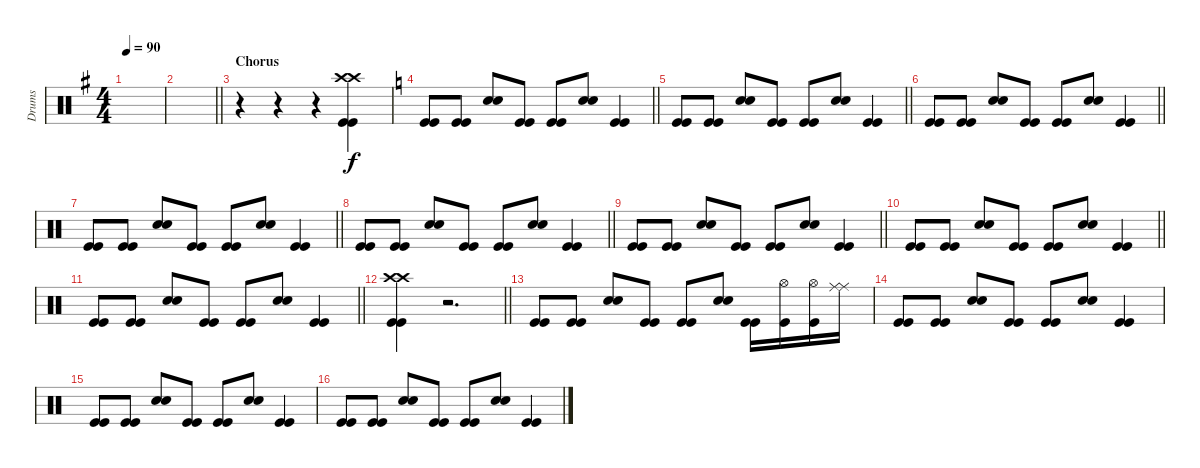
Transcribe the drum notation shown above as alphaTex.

\track ("Drums" "Drums") {instrument percussion}
\staff {score}
\articulation defaults
\ts (4 4)
\tempo 90
\clef neutral
\ks g
|
\barLineRight lightlight
|
\section ("" "Chorus")
r.4 r.4 r.4 ("Crash high (hit)" "Kick (hit)" "Kick (hit)" "Crash high (hit)").4 |
\barLineRight lightlight
\ks c
("Kick (hit)" "Kick (hit)").8 ("Kick (hit)" "Kick (hit)").8 ("Electric Snare (hit)" "Electric Snare (hit)").8 ("Kick (hit)" "Kick (hit)").8 ("Kick (hit)" "Kick (hit)").8 ("Electric Snare (hit)" "Electric Snare (hit)").8 ("Kick (hit)" "Kick (hit)").4 |
\barLineRight lightlight
("Kick (hit)" "Kick (hit)").8 ("Kick (hit)" "Kick (hit)").8 ("Electric Snare (hit)" "Electric Snare (hit)").8 ("Kick (hit)" "Kick (hit)").8 ("Kick (hit)" "Kick (hit)").8 ("Electric Snare (hit)" "Electric Snare (hit)").8 ("Kick (hit)" "Kick (hit)").4 |
\barLineRight lightlight
("Kick (hit)" "Kick (hit)").8 ("Kick (hit)" "Kick (hit)").8 ("Electric Snare (hit)" "Electric Snare (hit)").8 ("Kick (hit)" "Kick (hit)").8 ("Kick (hit)" "Kick (hit)").8 ("Electric Snare (hit)" "Electric Snare (hit)").8 ("Kick (hit)" "Kick (hit)").4 |
\barLineRight lightlight
("Kick (hit)" "Kick (hit)").8 ("Kick (hit)" "Kick (hit)").8 ("Electric Snare (hit)" "Electric Snare (hit)").8 ("Kick (hit)" "Kick (hit)").8 ("Kick (hit)" "Kick (hit)").8 ("Electric Snare (hit)" "Electric Snare (hit)").8 ("Kick (hit)" "Kick (hit)").4 |
\barLineRight lightlight
("Kick (hit)" "Kick (hit)").8 ("Kick (hit)" "Kick (hit)").8 ("Electric Snare (hit)" "Electric Snare (hit)").8 ("Kick (hit)" "Kick (hit)").8 ("Kick (hit)" "Kick (hit)").8 ("Electric Snare (hit)" "Electric Snare (hit)").8 ("Kick (hit)" "Kick (hit)").4 |
\barLineRight lightlight
("Kick (hit)" "Kick (hit)").8 ("Kick (hit)" "Kick (hit)").8 ("Electric Snare (hit)" "Electric Snare (hit)").8 ("Kick (hit)" "Kick (hit)").8 ("Kick (hit)" "Kick (hit)").8 ("Electric Snare (hit)" "Electric Snare (hit)").8 ("Kick (hit)" "Kick (hit)").4 |
\barLineRight lightlight
("Kick (hit)" "Kick (hit)").8 ("Kick (hit)" "Kick (hit)").8 ("Electric Snare (hit)" "Electric Snare (hit)").8 ("Kick (hit)" "Kick (hit)").8 ("Kick (hit)" "Kick (hit)").8 ("Electric Snare (hit)" "Electric Snare (hit)").8 ("Kick (hit)" "Kick (hit)").4 |
\barLineRight lightlight
("Kick (hit)" "Kick (hit)").8 ("Kick (hit)" "Kick (hit)").8 ("Electric Snare (hit)" "Electric Snare (hit)").8 ("Kick (hit)" "Kick (hit)").8 ("Kick (hit)" "Kick (hit)").8 ("Electric Snare (hit)" "Electric Snare (hit)").8 ("Kick (hit)" "Kick (hit)").4 |
\barLineRight lightlight
("Kick (hit)" "Crash high (hit)" "Kick (hit)" "Crash high (hit)").4 r.2{d} |
("Kick (hit)" "Kick (hit)").8 ("Kick (hit)" "Kick (hit)").8 ("Electric Snare (hit)" "Electric Snare (hit)").8 ("Kick (hit)" "Kick (hit)").8 ("Kick (hit)" "Kick (hit)").8 ("Electric Snare (hit)" "Electric Snare (hit)").8 ("Kick (hit)" "Kick (hit)").16 ("Hi-Hat (open)" "Kick (hit)").16 ("Hi-Hat (open)" "Kick (hit)").16 ("Ride (middle)" "Ride (middle)").16 |
("Kick (hit)" "Kick (hit)").8 ("Kick (hit)" "Kick (hit)").8 ("Electric Snare (hit)" "Electric Snare (hit)").8 ("Kick (hit)" "Kick (hit)").8 ("Kick (hit)" "Kick (hit)").8 ("Electric Snare (hit)" "Electric Snare (hit)").8 ("Kick (hit)" "Kick (hit)").4 |
("Kick (hit)" "Kick (hit)").8 ("Kick (hit)" "Kick (hit)").8 ("Electric Snare (hit)" "Electric Snare (hit)").8 ("Kick (hit)" "Kick (hit)").8 ("Kick (hit)" "Kick (hit)").8 ("Electric Snare (hit)" "Electric Snare (hit)").8 ("Kick (hit)" "Kick (hit)").4 |
("Kick (hit)" "Kick (hit)").8 ("Kick (hit)" "Kick (hit)").8 ("Electric Snare (hit)" "Electric Snare (hit)").8 ("Kick (hit)" "Kick (hit)").8 ("Kick (hit)" "Kick (hit)").8 ("Electric Snare (hit)" "Electric Snare (hit)").8 ("Kick (hit)" "Kick (hit)").4
